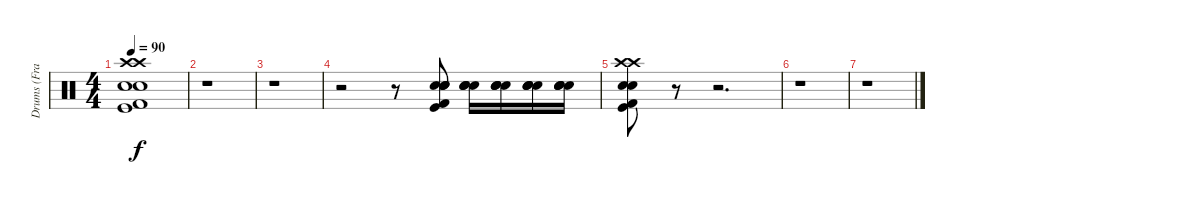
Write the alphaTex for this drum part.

\track ("Drums (Frank Ferrer)" "Drums (Fra") {instrument percussion}
\staff {score}
\articulation defaults
\ts (4 4)
\tempo 90
\clef neutral
\ks c
("Crash high (hit)" "Crash high (hit)" "Snare (hit) 2" "Snare (hit) 2" "Kick (hit)" "Kick (hit) 2").1{dy f} |
r.1 |
r.1 |
r.2 r.8 ("Snare (hit) 2" "Snare (hit) 2" "Snare (hit) 2" "Snare (hit) 2" "Kick (hit)" "Kick (hit) 2").8 ("Snare (hit) 2" "Snare (hit) 2" "Snare (hit) 2" "Snare (hit) 2").16 ("Snare (hit) 2" "Snare (hit) 2" "Snare (hit) 2" "Snare (hit) 2").16 ("Snare (hit) 2" "Snare (hit) 2" "Snare (hit) 2" "Snare (hit) 2").16 ("Snare (hit) 2" "Snare (hit) 2" "Snare (hit) 2" "Snare (hit) 2").16 |
("Crash high (hit)" "Crash high (hit)" "Snare (hit) 2" "Snare (hit) 2" "Kick (hit)" "Kick (hit) 2").8 r.8 r.2{d} |
r.1 |
r.1
